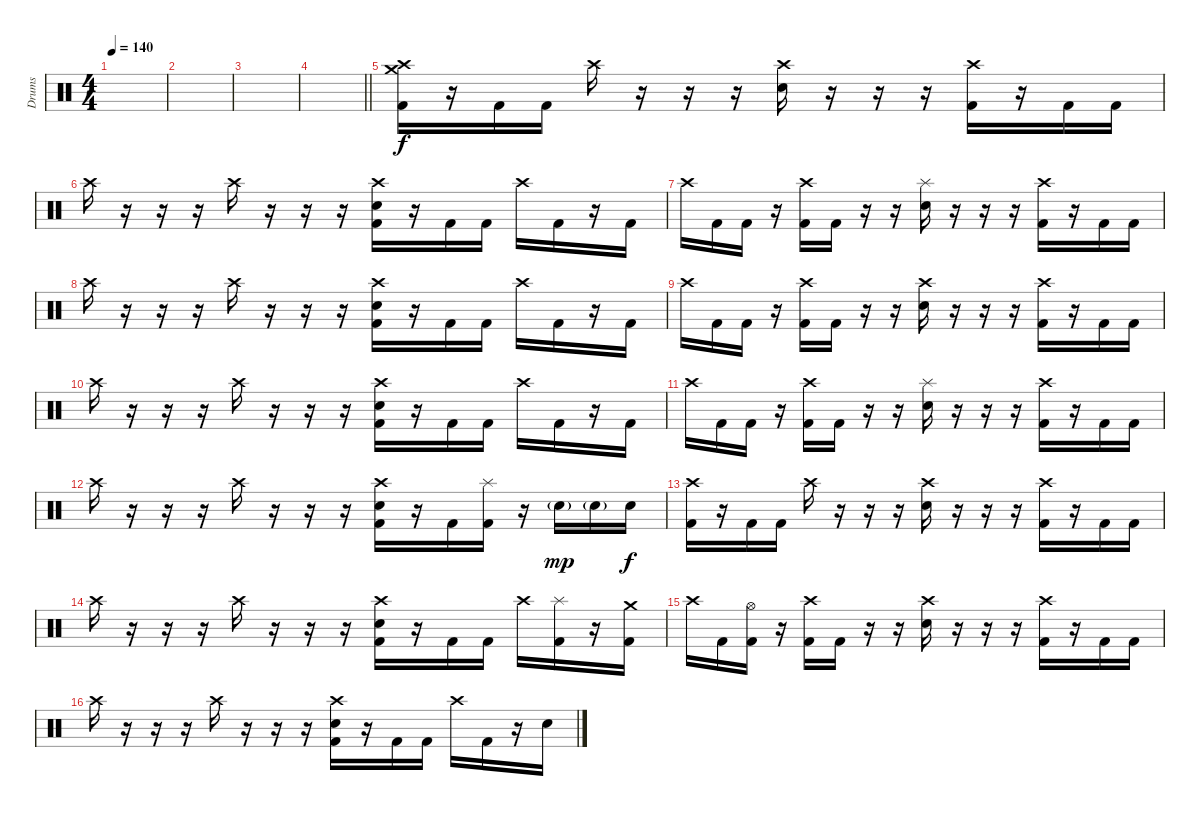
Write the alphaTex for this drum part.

\track ("Drums" "Drums") {instrument percussion}
\staff {score}
\articulation defaults
\ts (4 4)
\section ("" "")
\tempo 140
\clef neutral
\ks c
|
|
|
\barLineRight lightlight
|
\section ("" "")
("Crash medium (hit)" "Crash high (hit)" "Kick (hit) 2").16 r.16 "Kick (hit) 2".16 "Kick (hit) 2".16 "Crash high (hit)".16 r.16 r.16 r.16 ("Crash high (hit)" "Electric Snare (hit)").16 r.16 r.16 r.16 ("Crash high (hit)" "Kick (hit) 2").16 r.16 "Kick (hit) 2".16 "Kick (hit) 2".16 |
"Crash high (hit)".16 r.16 r.16 r.16 "Crash high (hit)".16 r.16 r.16 r.16 ("Crash high (hit)" "Electric Snare (hit)" "Kick (hit) 2").16 r.16 "Kick (hit) 2".16 "Kick (hit) 2".16 "Crash high (hit)".16 "Kick (hit) 2".16 r.16 "Kick (hit) 2".16 |
"Crash high (hit)".16 "Kick (hit) 2".16 "Kick (hit) 2".16 r.16 ("Crash high (hit)" "Kick (hit) 2").16 "Kick (hit) 2".16 r.16 r.16 ("Splash (hit)" "Electric Snare (hit)").16 r.16 r.16 r.16 ("Crash high (hit)" "Kick (hit) 2").16 r.16 "Kick (hit) 2".16 "Kick (hit) 2".16 |
"Crash high (hit)".16 r.16 r.16 r.16 "Crash high (hit)".16 r.16 r.16 r.16 ("Crash high (hit)" "Electric Snare (hit)" "Kick (hit) 2").16 r.16 "Kick (hit) 2".16 "Kick (hit) 2".16 "Crash high (hit)".16 "Kick (hit) 2".16 r.16 "Kick (hit) 2".16 |
"Crash high (hit)".16 "Kick (hit) 2".16 "Kick (hit) 2".16 r.16 ("Crash high (hit)" "Kick (hit) 2").16 "Kick (hit) 2".16 r.16 r.16 ("Crash high (hit)" "Electric Snare (hit)").16 r.16 r.16 r.16 ("Crash high (hit)" "Kick (hit) 2").16 r.16 "Kick (hit) 2".16 "Kick (hit) 2".16 |
"Crash high (hit)".16 r.16 r.16 r.16 "Crash high (hit)".16 r.16 r.16 r.16 ("Crash high (hit)" "Electric Snare (hit)" "Kick (hit) 2").16 r.16 "Kick (hit) 2".16 "Kick (hit) 2".16 "Crash high (hit)".16 "Kick (hit) 2".16 r.16 "Kick (hit) 2".16 |
"Crash high (hit)".16 "Kick (hit) 2".16 "Kick (hit) 2".16 r.16 ("Crash high (hit)" "Kick (hit) 2").16 "Kick (hit) 2".16 r.16 r.16 ("Splash (hit)" "Electric Snare (hit)").16 r.16 r.16 r.16 ("Crash high (hit)" "Kick (hit) 2").16 r.16 "Kick (hit) 2".16 "Kick (hit) 2".16 |
"Crash high (hit)".16 r.16 r.16 r.16 "Crash high (hit)".16 r.16 r.16 r.16 ("Crash high (hit)" "Electric Snare (hit)" "Kick (hit) 2").16 r.16 "Kick (hit) 2".16 ("Splash (hit)" "Kick (hit) 2").16 r.16 "Electric Snare (hit)"{g}.16{dy mp} "Electric Snare (hit)"{g}.16 "Electric Snare (hit)".16{dy f} |
("Crash high (hit)" "Kick (hit) 2").16 r.16 "Kick (hit) 2".16 "Kick (hit) 2".16 "Crash high (hit)".16 r.16 r.16 r.16 ("Crash high (hit)" "Electric Snare (hit)").16 r.16 r.16 r.16 ("Crash high (hit)" "Kick (hit) 2").16 r.16 "Kick (hit) 2".16 "Kick (hit) 2".16 |
"Crash high (hit)".16 r.16 r.16 r.16 "Crash high (hit)".16 r.16 r.16 r.16 ("Crash high (hit)" "Electric Snare (hit)" "Kick (hit) 2").16 r.16 "Kick (hit) 2".16 "Kick (hit) 2".16 "Crash high (hit)".16 ("Splash (hit)" "Kick (hit) 2").16 r.16 ("Crash medium (hit)" "Kick (hit) 2").16 |
"Crash high (hit)".16 "Kick (hit) 2".16 ("Hi-Hat (open)" "Kick (hit) 2").16 r.16 ("Crash high (hit)" "Kick (hit) 2").16 "Kick (hit) 2".16 r.16 r.16 ("Crash high (hit)" "Electric Snare (hit)").16 r.16 r.16 r.16 ("Crash high (hit)" "Kick (hit) 2").16 r.16 "Kick (hit) 2".16 "Kick (hit) 2".16 |
"Crash high (hit)".16 r.16 r.16 r.16 "Crash high (hit)".16 r.16 r.16 r.16 ("Crash high (hit)" "Electric Snare (hit)" "Kick (hit) 2").16 r.16 "Kick (hit) 2".16 "Kick (hit) 2".16 "Crash high (hit)".16 "Kick (hit) 2".16 r.16 "Electric Snare (hit)".16
